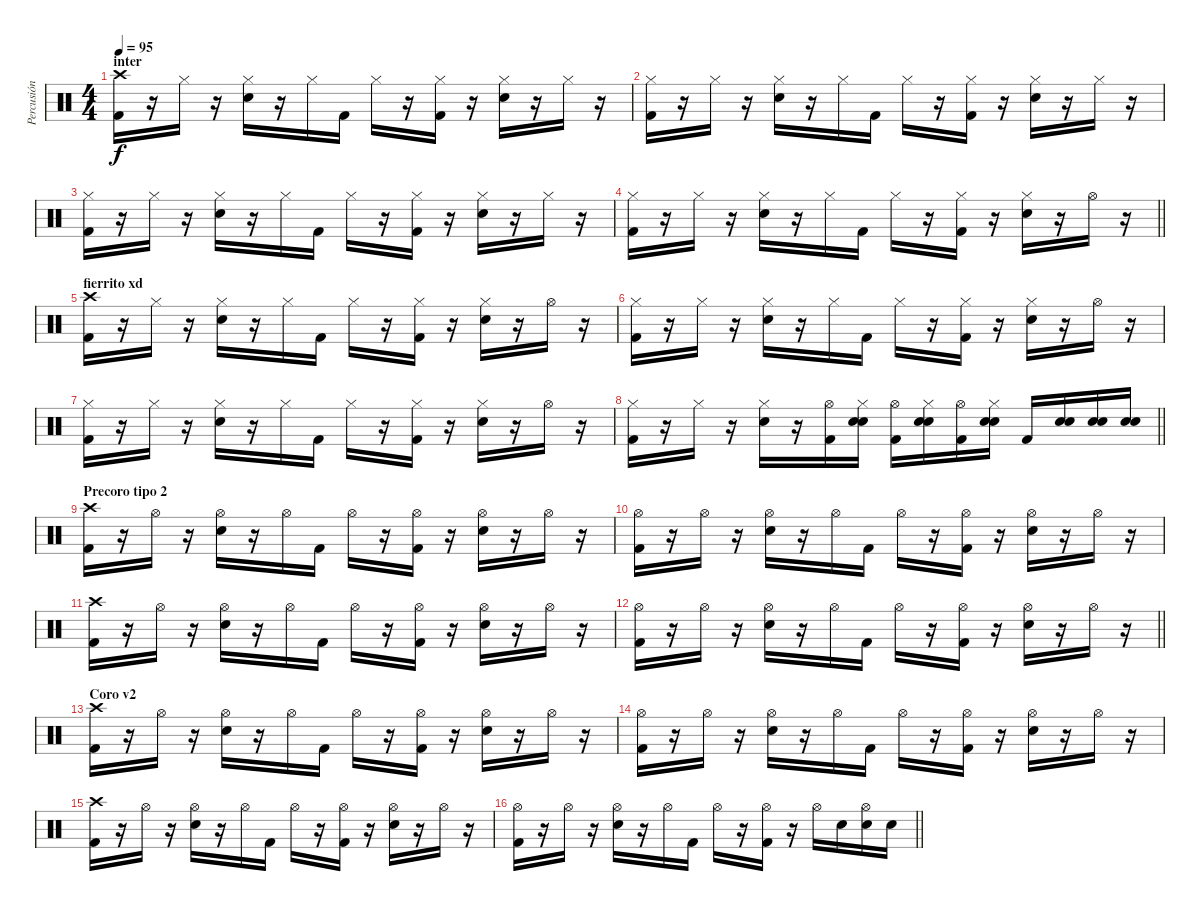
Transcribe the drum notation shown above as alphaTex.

\track ("Percusión" "Percusión") {instrument percussion}
\staff {score}
\articulation defaults
\ts (4 4)
\section ("" "inter")
\tempo 95
\clef neutral
\ks c
("Crash high (hit)" "Kick (hit) 2").16{dy f} r.16 "Hi-Hat (closed)".16 r.16 ("Hi-Hat (closed)" "Snare (hit) 2").16 r.16 "Hi-Hat (closed)".16 "Kick (hit) 2".16 "Hi-Hat (closed)".16 r.16 ("Hi-Hat (closed)" "Kick (hit) 2").16 r.16 ("Hi-Hat (closed)" "Snare (hit) 2").16 r.16 "Hi-Hat (closed)".16 r.16 |
("Hi-Hat (closed)" "Kick (hit) 2").16 r.16 "Hi-Hat (closed)".16 r.16 ("Hi-Hat (closed)" "Snare (hit) 2").16 r.16 "Hi-Hat (closed)".16 "Kick (hit) 2".16 "Hi-Hat (closed)".16 r.16 ("Hi-Hat (closed)" "Kick (hit) 2").16 r.16 ("Hi-Hat (closed)" "Snare (hit) 2").16 r.16 "Hi-Hat (closed)".16 r.16 |
("Hi-Hat (closed)" "Kick (hit) 2").16 r.16 "Hi-Hat (closed)".16 r.16 ("Hi-Hat (closed)" "Snare (hit) 2").16 r.16 "Hi-Hat (closed)".16 "Kick (hit) 2".16 "Hi-Hat (closed)".16 r.16 ("Hi-Hat (closed)" "Kick (hit) 2").16 r.16 ("Hi-Hat (closed)" "Snare (hit) 2").16 r.16 "Hi-Hat (closed)".16 r.16 |
\barLineRight lightlight
("Hi-Hat (closed)" "Kick (hit) 2").16 r.16 "Hi-Hat (closed)".16 r.16 ("Hi-Hat (closed)" "Snare (hit) 2").16 r.16 "Hi-Hat (closed)".16 "Kick (hit) 2".16 "Hi-Hat (closed)".16 r.16 ("Hi-Hat (closed)" "Kick (hit) 2").16 r.16 ("Hi-Hat (closed)" "Snare (hit) 2").16 r.16 "Hi-Hat (open)".16 r.16 |
\section ("" "fierrito xd")
("Crash high (hit)" "Kick (hit) 2").16 r.16 "Hi-Hat (closed)".16 r.16 ("Hi-Hat (closed)" "Snare (hit) 2").16 r.16 "Hi-Hat (closed)".16 "Kick (hit) 2".16 "Hi-Hat (closed)".16 r.16 ("Hi-Hat (closed)" "Kick (hit) 2").16 r.16 ("Hi-Hat (closed)" "Snare (hit) 2").16 r.16 "Hi-Hat (open)".16 r.16 |
("Hi-Hat (closed)" "Kick (hit) 2").16 r.16 "Hi-Hat (closed)".16 r.16 ("Hi-Hat (closed)" "Snare (hit) 2").16 r.16 "Hi-Hat (closed)".16 "Kick (hit) 2".16 "Hi-Hat (closed)".16 r.16 ("Hi-Hat (closed)" "Kick (hit) 2").16 r.16 ("Hi-Hat (closed)" "Snare (hit) 2").16 r.16 "Hi-Hat (open)".16 r.16 |
("Hi-Hat (closed)" "Kick (hit) 2").16 r.16 "Hi-Hat (closed)".16 r.16 ("Hi-Hat (closed)" "Snare (hit) 2").16 r.16 "Hi-Hat (closed)".16 "Kick (hit) 2".16 "Hi-Hat (closed)".16 r.16 ("Hi-Hat (closed)" "Kick (hit) 2").16 r.16 ("Hi-Hat (closed)" "Snare (hit) 2").16 r.16 "Hi-Hat (open)".16 r.16 |
\barLineRight lightlight
("Hi-Hat (closed)" "Kick (hit) 2").16 r.16 "Hi-Hat (closed)".16 r.16 ("Hi-Hat (closed)" "Snare (hit) 2").16 r.16 ("Hi-Hat (open)" "Kick (hit) 2").16 ("Hi-Hat (closed)" "Snare (hit) 2" "Snare (hit) 2").16 ("Hi-Hat (open)" "Kick (hit) 2").16 ("Hi-Hat (closed)" "Snare (hit) 2" "Snare (hit) 2").16 ("Hi-Hat (open)" "Kick (hit) 2").16 ("Hi-Hat (closed)" "Snare (hit) 2" "Snare (hit) 2").16 "Kick (hit) 2".16 ("Snare (hit) 2" "Snare (hit) 2").16 ("Snare (hit) 2" "Snare (hit) 2").16 ("Snare (hit) 2" "Snare (hit) 2").16 |
\section ("" "Precoro tipo 2")
("Crash high (hit)" "Kick (hit) 2").16 r.16 "Hi-Hat (open)".16 r.16 ("Hi-Hat (open)" "Snare (hit) 2").16 r.16 "Hi-Hat (open)".16 "Kick (hit) 2".16 "Hi-Hat (open)".16 r.16 ("Hi-Hat (open)" "Kick (hit) 2").16 r.16 ("Hi-Hat (open)" "Snare (hit) 2").16 r.16 "Hi-Hat (open)".16 r.16 |
("Hi-Hat (open)" "Kick (hit) 2").16 r.16 "Hi-Hat (open)".16 r.16 ("Hi-Hat (open)" "Snare (hit) 2").16 r.16 "Hi-Hat (open)".16 "Kick (hit) 2".16 "Hi-Hat (open)".16 r.16 ("Hi-Hat (open)" "Kick (hit) 2").16 r.16 ("Hi-Hat (open)" "Snare (hit) 2").16 r.16 "Hi-Hat (open)".16 r.16 |
("Crash high (hit)" "Kick (hit) 2").16 r.16 "Hi-Hat (open)".16 r.16 ("Hi-Hat (open)" "Snare (hit) 2").16 r.16 "Hi-Hat (open)".16 "Kick (hit) 2".16 "Hi-Hat (open)".16 r.16 ("Hi-Hat (open)" "Kick (hit) 2").16 r.16 ("Hi-Hat (open)" "Snare (hit) 2").16 r.16 "Hi-Hat (open)".16 r.16 |
\barLineRight lightlight
("Hi-Hat (open)" "Kick (hit) 2").16 r.16 "Hi-Hat (open)".16 r.16 ("Hi-Hat (open)" "Snare (hit) 2").16 r.16 "Hi-Hat (open)".16 "Kick (hit) 2".16 "Hi-Hat (open)".16 r.16 ("Hi-Hat (open)" "Kick (hit) 2").16 r.16 ("Hi-Hat (open)" "Snare (hit) 2").16 r.16 "Hi-Hat (open)".16 r.16 |
\section ("" "Coro v2")
("Crash high (hit)" "Kick (hit) 2").16 r.16 "Hi-Hat (open)".16 r.16 ("Hi-Hat (open)" "Snare (hit) 2").16 r.16 "Hi-Hat (open)".16 "Kick (hit) 2".16 "Hi-Hat (open)".16 r.16 ("Hi-Hat (open)" "Kick (hit) 2").16 r.16 ("Hi-Hat (open)" "Snare (hit) 2").16 r.16 "Hi-Hat (open)".16 r.16 |
("Hi-Hat (open)" "Kick (hit) 2").16 r.16 "Hi-Hat (open)".16 r.16 ("Hi-Hat (open)" "Snare (hit) 2").16 r.16 "Hi-Hat (open)".16 "Kick (hit) 2".16 "Hi-Hat (open)".16 r.16 ("Hi-Hat (open)" "Kick (hit) 2").16 r.16 ("Hi-Hat (open)" "Snare (hit) 2").16 r.16 "Hi-Hat (open)".16 r.16 |
("Crash high (hit)" "Kick (hit) 2").16 r.16 "Hi-Hat (open)".16 r.16 ("Hi-Hat (open)" "Snare (hit) 2").16 r.16 "Hi-Hat (open)".16 "Kick (hit) 2".16 "Hi-Hat (open)".16 r.16 ("Hi-Hat (open)" "Kick (hit) 2").16 r.16 ("Hi-Hat (open)" "Snare (hit) 2").16 r.16 "Hi-Hat (open)".16 r.16 |
\barLineRight lightlight
("Hi-Hat (open)" "Kick (hit) 2").16 r.16 "Hi-Hat (open)".16 r.16 ("Hi-Hat (open)" "Snare (hit) 2").16 r.16 "Hi-Hat (open)".16 "Kick (hit) 2".16 "Hi-Hat (open)".16 r.16 ("Hi-Hat (open)" "Kick (hit) 2").16 r.16 "Hi-Hat (open)".16 "Snare (hit) 2".16 ("Hi-Hat (open)" "Snare (hit) 2").16 "Snare (hit) 2".16
